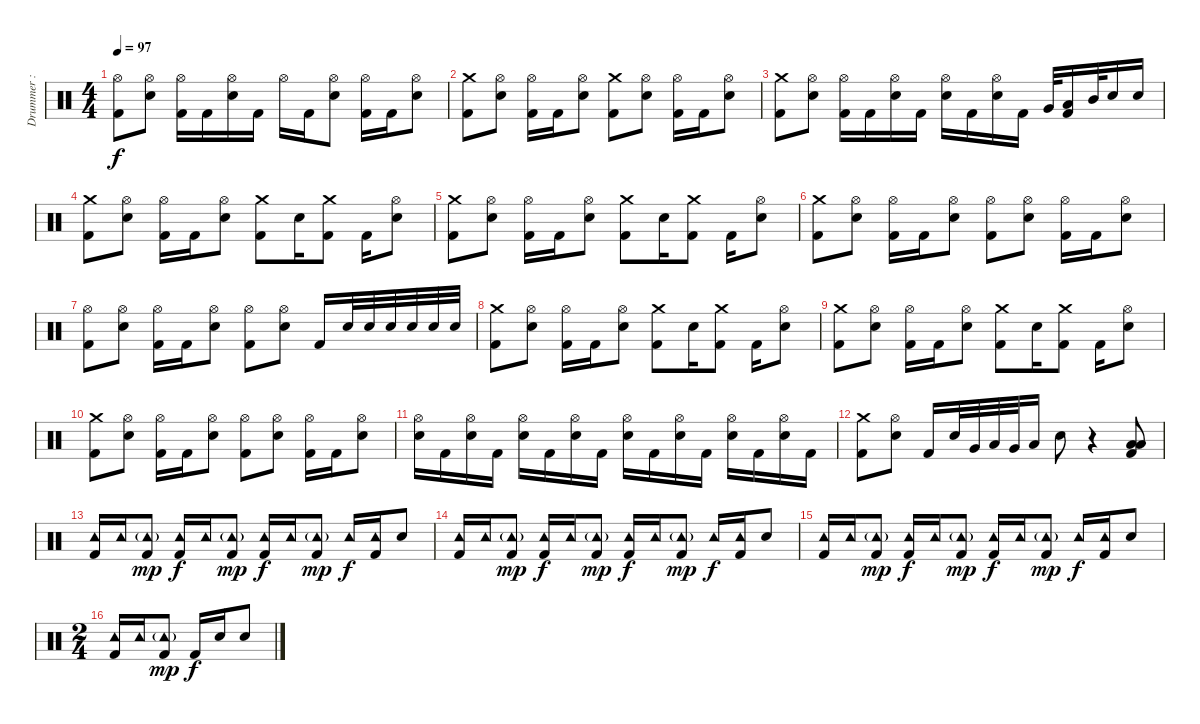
\track ("Drummer : Tainaka Ritsu - Tan" "Drummer : ") {instrument percussion}
\staff {score}
\articulation defaults
\ts (4 4)
\tempo 97
\clef neutral
\ks c
("Hi-Hat (open)" "Kick (hit) 2").8{dy f} ("Hi-Hat (open)" "Electric Snare (hit)").8 ("Hi-Hat (open)" "Kick (hit) 2").16 "Kick (hit) 2".16 ("Hi-Hat (open)" "Electric Snare (hit)").16 "Kick (hit) 2".16 "Hi-Hat (open)".16 "Kick (hit) 2".16 ("Hi-Hat (open)" "Electric Snare (hit)").8 ("Hi-Hat (open)" "Kick (hit) 2").16 "Kick (hit) 2".16 ("Hi-Hat (open)" "Electric Snare (hit)").8 |
("Crash medium (hit)" "Kick (hit) 2").8 ("Hi-Hat (open)" "Electric Snare (hit)").8 ("Hi-Hat (open)" "Kick (hit) 2").16 "Kick (hit) 2".16 ("Hi-Hat (open)" "Electric Snare (hit)").8 ("Crash medium (hit)" "Kick (hit) 2").8 ("Hi-Hat (open)" "Electric Snare (hit)").8 ("Hi-Hat (open)" "Kick (hit) 2").16 "Kick (hit) 2".16 ("Hi-Hat (open)" "Electric Snare (hit)").8 |
("Crash medium (hit)" "Kick (hit) 2").8 ("Hi-Hat (open)" "Electric Snare (hit)").8 ("Hi-Hat (open)" "Kick (hit) 2").16 "Kick (hit) 2".16 ("Hi-Hat (open)" "Electric Snare (hit)").16 "Kick (hit) 2".16 ("Hi-Hat (open)" "Electric Snare (hit)").16 "Kick (hit) 2".16 ("Hi-Hat (open)" "Electric Snare (hit)").16 "Kick (hit) 2".16 "Very Low Tom (hit)".32 ("Low Tom (hit)" "Kick (hit) 2").16 "Mid Tom (hit)".32 "Electric Snare (hit)".16 "Electric Snare (hit)".16 |
("Crash medium (hit)" "Kick (hit) 2").8 ("Hi-Hat (open)" "Electric Snare (hit)").8 ("Hi-Hat (open)" "Kick (hit) 2").16 "Kick (hit) 2".16 ("Hi-Hat (open)" "Electric Snare (hit)").8 ("Crash medium (hit)" "Kick (hit) 2").8 "Electric Snare (hit)".16 ("Crash medium (hit)" "Kick (hit) 2").8 "Kick (hit) 2".16 ("Hi-Hat (open)" "Electric Snare (hit)").8 |
("Crash medium (hit)" "Kick (hit) 2").8 ("Hi-Hat (open)" "Electric Snare (hit)").8 ("Hi-Hat (open)" "Kick (hit) 2").16 "Kick (hit) 2".16 ("Hi-Hat (open)" "Electric Snare (hit)").8 ("Crash medium (hit)" "Kick (hit) 2").8 "Electric Snare (hit)".16 ("Crash medium (hit)" "Kick (hit) 2").8 "Kick (hit) 2".16 ("Hi-Hat (open)" "Electric Snare (hit)").8 |
("Crash medium (hit)" "Kick (hit) 2").8 ("Hi-Hat (open)" "Electric Snare (hit)").8 ("Hi-Hat (open)" "Kick (hit) 2").16 "Kick (hit) 2".16 ("Hi-Hat (open)" "Electric Snare (hit)").8 ("Hi-Hat (open)" "Kick (hit) 2").8 ("Hi-Hat (open)" "Electric Snare (hit)").8 ("Hi-Hat (open)" "Kick (hit) 2").16 "Kick (hit) 2".16 ("Hi-Hat (open)" "Electric Snare (hit)").8 |
("Hi-Hat (open)" "Kick (hit) 2").8 ("Hi-Hat (open)" "Electric Snare (hit)").8 ("Hi-Hat (open)" "Kick (hit) 2").16 "Kick (hit) 2".16 ("Hi-Hat (open)" "Electric Snare (hit)").8 ("Hi-Hat (open)" "Kick (hit) 2").8 ("Hi-Hat (open)" "Electric Snare (hit)").8 "Kick (hit) 2".16 "Electric Snare (hit)".32 "Electric Snare (hit)".32 "Electric Snare (hit)".32 "Electric Snare (hit)".32 "Electric Snare (hit)".32 "Electric Snare (hit)".32 |
("Crash medium (hit)" "Kick (hit) 2").8 ("Hi-Hat (open)" "Electric Snare (hit)").8 ("Hi-Hat (open)" "Kick (hit) 2").16 "Kick (hit) 2".16 ("Hi-Hat (open)" "Electric Snare (hit)").8 ("Crash medium (hit)" "Kick (hit) 2").8 "Electric Snare (hit)".16 ("Crash medium (hit)" "Kick (hit) 2").8 "Kick (hit) 2".16 ("Hi-Hat (open)" "Electric Snare (hit)").8 |
("Crash medium (hit)" "Kick (hit) 2").8 ("Hi-Hat (open)" "Electric Snare (hit)").8 ("Hi-Hat (open)" "Kick (hit) 2").16 "Kick (hit) 2".16 ("Hi-Hat (open)" "Electric Snare (hit)").8 ("Crash medium (hit)" "Kick (hit) 2").8 "Electric Snare (hit)".16 ("Crash medium (hit)" "Kick (hit) 2").8 "Kick (hit) 2".16 ("Hi-Hat (open)" "Electric Snare (hit)").8 |
("Crash medium (hit)" "Kick (hit) 2").8 ("Hi-Hat (open)" "Electric Snare (hit)").8 ("Hi-Hat (open)" "Kick (hit) 2").16 "Kick (hit) 2".16 ("Hi-Hat (open)" "Electric Snare (hit)").8 ("Hi-Hat (open)" "Kick (hit) 2").8 ("Hi-Hat (open)" "Electric Snare (hit)").8 ("Hi-Hat (open)" "Kick (hit) 2").16 "Kick (hit) 2".16 ("Hi-Hat (open)" "Electric Snare (hit)").8 |
("Hi-Hat (open)" "Electric Snare (hit)").16 "Kick (hit) 2".16 ("Hi-Hat (open)" "Electric Snare (hit)").16 "Kick (hit) 2".16 ("Hi-Hat (open)" "Electric Snare (hit)").16 "Kick (hit) 2".16 ("Hi-Hat (open)" "Electric Snare (hit)").16 "Kick (hit) 2".16 ("Hi-Hat (open)" "Electric Snare (hit)").16 "Kick (hit) 2".16 ("Hi-Hat (open)" "Electric Snare (hit)").16 "Kick (hit) 2".16 ("Hi-Hat (open)" "Electric Snare (hit)").16 "Kick (hit) 2".16 ("Hi-Hat (open)" "Electric Snare (hit)").16 "Kick (hit) 2".16 |
("Crash medium (hit)" "Kick (hit) 2").8 ("Hi-Hat (open)" "Electric Snare (hit)").8 "Kick (hit) 2".16 "Electric Snare (hit)".32 "Very Low Tom (hit)".32 "Low Tom (hit)".32 "Very Low Tom (hit)".32 "Low Floor Tom (hit)".16 "Electric Snare (hit)".8 r.4 ("Low Floor Tom (hit)" "Low Floor Tom (hit)" "Kick (hit) 2").8 |
("Tambourine (hit)" "Kick (hit) 2").16 "Tambourine (hit)".16 ("Tambourine (hit)"{g} "Kick (hit) 2").8{dy mp} ("Tambourine (hit)" "Kick (hit) 2").16{dy f} "Tambourine (hit)".16 ("Tambourine (hit)"{g} "Kick (hit) 2").8{dy mp} ("Tambourine (hit)" "Kick (hit) 2").16{dy f} "Tambourine (hit)".16 ("Tambourine (hit)"{g} "Kick (hit) 2").8{dy mp} "Tambourine (hit)".16{dy f} ("Tambourine (hit)" "Kick (hit) 2").16 "Electric Snare (hit)".8 |
("Tambourine (hit)" "Kick (hit) 2").16 "Tambourine (hit)".16 ("Tambourine (hit)"{g} "Kick (hit) 2").8{dy mp} ("Tambourine (hit)" "Kick (hit) 2").16{dy f} "Tambourine (hit)".16 ("Tambourine (hit)"{g} "Kick (hit) 2").8{dy mp} ("Tambourine (hit)" "Kick (hit) 2").16{dy f} "Tambourine (hit)".16 ("Tambourine (hit)"{g} "Kick (hit) 2").8{dy mp} "Tambourine (hit)".16{dy f} ("Tambourine (hit)" "Kick (hit) 2").16 "Electric Snare (hit)".8 |
("Tambourine (hit)" "Kick (hit) 2").16 "Tambourine (hit)".16 ("Tambourine (hit)"{g} "Kick (hit) 2").8{dy mp} ("Tambourine (hit)" "Kick (hit) 2").16{dy f} "Tambourine (hit)".16 ("Tambourine (hit)"{g} "Kick (hit) 2").8{dy mp} ("Tambourine (hit)" "Kick (hit) 2").16{dy f} "Tambourine (hit)".16 ("Tambourine (hit)"{g} "Kick (hit) 2").8{dy mp} "Tambourine (hit)".16{dy f} ("Tambourine (hit)" "Kick (hit) 2").16 "Electric Snare (hit)".8 |
\ts (2 4)
("Tambourine (hit)" "Kick (hit) 2").16 "Tambourine (hit)".16 ("Tambourine (hit)"{g} "Kick (hit) 2").8{dy mp} "Kick (hit) 2".16{dy f} "Electric Snare (hit)".16 "Electric Snare (hit)".8
